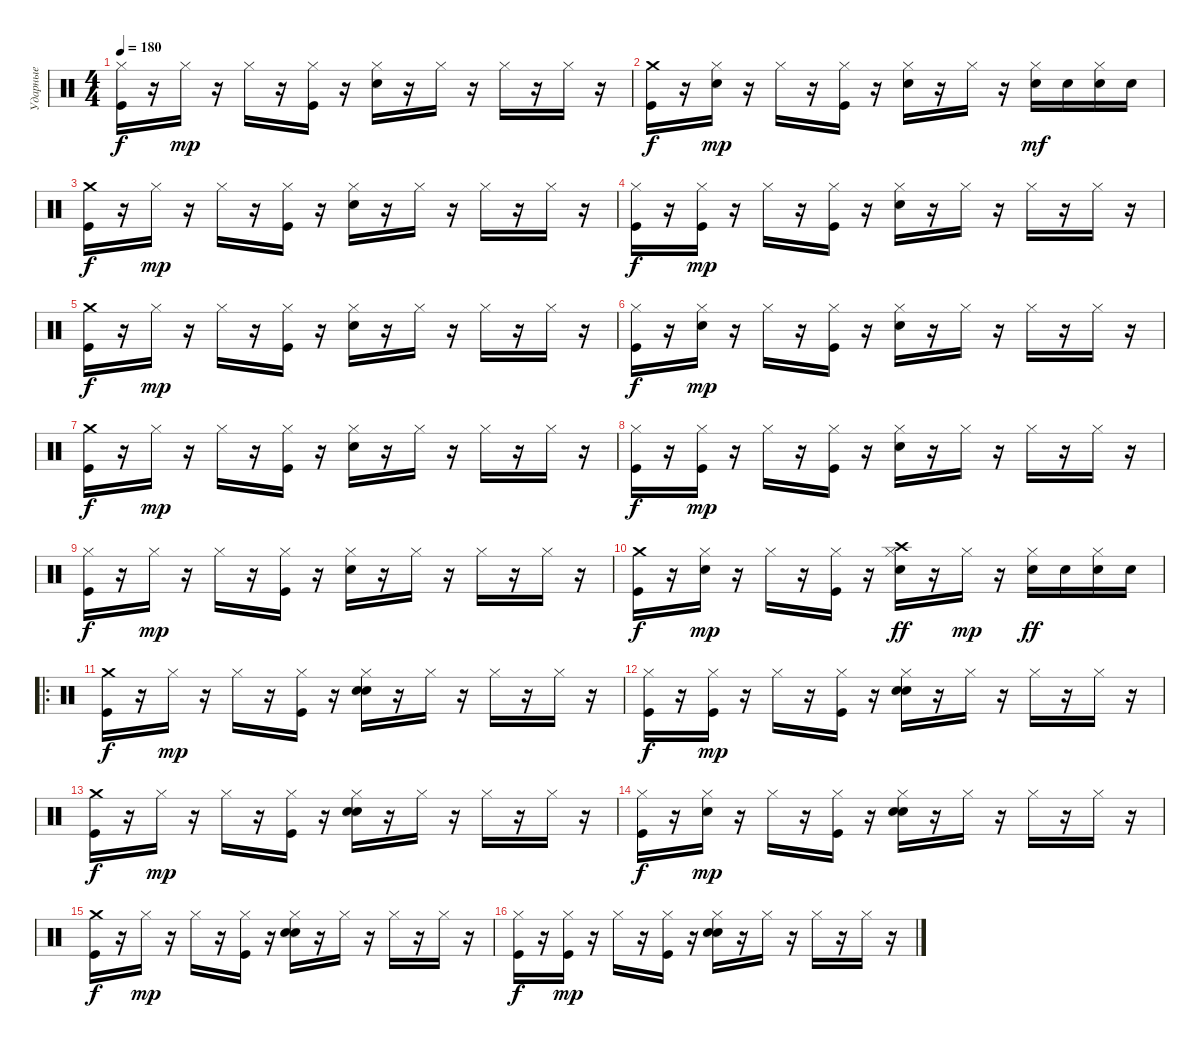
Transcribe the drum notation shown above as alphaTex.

\track ("Ударные" "Ударные") {instrument percussion}
\staff {score}
\articulation defaults
\ts (4 4)
\tempo 180
\clef neutral
\ks c
("Hi-Hat (closed)" "Kick (hit)").16{dy f balance 0} r.16 "Hi-Hat (closed)".16{dy mp} r.16 "Hi-Hat (closed)".16 r.16 ("Hi-Hat (closed)" "Kick (hit)").16 r.16 ("Hi-Hat (closed)" "Electric Snare (hit)").16 r.16 "Hi-Hat (closed)".16 r.16 "Hi-Hat (closed)".16 r.16 "Hi-Hat (closed)".16 r.16 |
("Crash medium (hit)" "Kick (hit)").16{dy f balance 16} r.16 ("Hi-Hat (closed)" "Electric Snare (hit)").16{dy mp} r.16 "Hi-Hat (closed)".16 r.16 ("Hi-Hat (closed)" "Kick (hit)").16 r.16 ("Hi-Hat (closed)" "Electric Snare (hit)").16 r.16 "Hi-Hat (closed)".16 r.16 ("Hi-Hat (closed)" "Electric Snare (hit)").16{dy mf} "Electric Snare (hit)".16 ("Hi-Hat (closed)" "Electric Snare (hit)").16 "Electric Snare (hit)".16 |
("Crash medium (hit)" "Kick (hit)").16{dy f volume 11 balance 0} r.16 "Hi-Hat (closed)".16{dy mp} r.16 "Hi-Hat (closed)".16 r.16 ("Hi-Hat (closed)" "Kick (hit)").16 r.16 ("Hi-Hat (closed)" "Electric Snare (hit)").16 r.16 "Hi-Hat (closed)".16 r.16 "Hi-Hat (closed)".16 r.16 "Hi-Hat (closed)".16 r.16 |
("Hi-Hat (closed)" "Kick (hit)").16{dy f balance 16} r.16 ("Hi-Hat (closed)" "Kick (hit)").16{dy mp} r.16 "Hi-Hat (closed)".16 r.16 ("Hi-Hat (closed)" "Kick (hit)").16 r.16 ("Hi-Hat (closed)" "Electric Snare (hit)").16 r.16 "Hi-Hat (closed)".16 r.16 "Hi-Hat (closed)".16 r.16 "Hi-Hat (closed)".16 r.16 |
("Crash medium (hit)" "Kick (hit)").16{dy f balance 0} r.16 "Hi-Hat (closed)".16{dy mp} r.16 "Hi-Hat (closed)".16 r.16 ("Hi-Hat (closed)" "Kick (hit)").16 r.16 ("Hi-Hat (closed)" "Electric Snare (hit)").16 r.16 "Hi-Hat (closed)".16 r.16 "Hi-Hat (closed)".16 r.16 "Hi-Hat (closed)".16 r.16 |
("Hi-Hat (closed)" "Kick (hit)").16{dy f balance 16} r.16 ("Hi-Hat (closed)" "Electric Snare (hit)").16{dy mp} r.16 "Hi-Hat (closed)".16 r.16 ("Hi-Hat (closed)" "Kick (hit)").16 r.16 ("Hi-Hat (closed)" "Electric Snare (hit)").16 r.16 "Hi-Hat (closed)".16 r.16 "Hi-Hat (closed)".16 r.16 "Hi-Hat (closed)".16 r.16 |
("Crash medium (hit)" "Kick (hit)").16{dy f balance 0} r.16 "Hi-Hat (closed)".16{dy mp} r.16 "Hi-Hat (closed)".16 r.16 ("Hi-Hat (closed)" "Kick (hit)").16 r.16 ("Hi-Hat (closed)" "Electric Snare (hit)").16 r.16 "Hi-Hat (closed)".16 r.16 "Hi-Hat (closed)".16 r.16 "Hi-Hat (closed)".16 r.16 |
("Hi-Hat (closed)" "Kick (hit)").16{dy f balance 16} r.16 ("Hi-Hat (closed)" "Kick (hit)").16{dy mp} r.16 "Hi-Hat (closed)".16 r.16 ("Hi-Hat (closed)" "Kick (hit)").16 r.16 ("Hi-Hat (closed)" "Electric Snare (hit)").16 r.16 "Hi-Hat (closed)".16 r.16 "Hi-Hat (closed)".16 r.16 "Hi-Hat (closed)".16 r.16 |
("Hi-Hat (closed)" "Kick (hit)").16{dy f balance 0} r.16 "Hi-Hat (closed)".16{dy mp} r.16 "Hi-Hat (closed)".16 r.16 ("Hi-Hat (closed)" "Kick (hit)").16 r.16 ("Hi-Hat (closed)" "Electric Snare (hit)").16 r.16 "Hi-Hat (closed)".16 r.16 "Hi-Hat (closed)".16 r.16 "Hi-Hat (closed)".16 r.16 |
("Crash medium (hit)" "Kick (hit)").16{dy f volume 16 balance 8} r.16 ("Hi-Hat (closed)" "Electric Snare (hit)").16{dy mp} r.16 "Hi-Hat (closed)".16 r.16 ("Hi-Hat (closed)" "Kick (hit)").16 r.16 ("Hi-Hat (closed)" "Crash high (hit)" "Electric Snare (hit)").16{dy ff} r.16 "Hi-Hat (closed)".16{dy mp} r.16 ("Hi-Hat (closed)" "Electric Snare (hit)").16{dy ff} "Electric Snare (hit)".16 ("Hi-Hat (closed)" "Electric Snare (hit)").16 "Electric Snare (hit)".16 |
\ro
("Crash medium (hit)" "Kick (hit)").16{dy f} r.16 "Hi-Hat (closed)".16{dy mp} r.16 "Hi-Hat (closed)".16 r.16 ("Hi-Hat (closed)" "Kick (hit)").16 r.16 ("Hi-Hat (closed)" "Electric Snare (hit)" "Hand Clap (hit)").16 r.16 "Hi-Hat (closed)".16 r.16 "Hi-Hat (closed)".16 r.16 "Hi-Hat (closed)".16 r.16 |
("Hi-Hat (closed)" "Kick (hit)").16{dy f} r.16 ("Hi-Hat (closed)" "Kick (hit)").16{dy mp} r.16 "Hi-Hat (closed)".16 r.16 ("Hi-Hat (closed)" "Kick (hit)").16 r.16 ("Hi-Hat (closed)" "Electric Snare (hit)" "Hand Clap (hit)").16 r.16 "Hi-Hat (closed)".16 r.16 "Hi-Hat (closed)".16 r.16 "Hi-Hat (closed)".16 r.16 |
("Crash medium (hit)" "Kick (hit)").16{dy f} r.16 "Hi-Hat (closed)".16{dy mp} r.16 "Hi-Hat (closed)".16 r.16 ("Hi-Hat (closed)" "Kick (hit)").16 r.16 ("Hi-Hat (closed)" "Electric Snare (hit)" "Hand Clap (hit)").16 r.16 "Hi-Hat (closed)".16 r.16 "Hi-Hat (closed)".16 r.16 "Hi-Hat (closed)".16 r.16 |
("Hi-Hat (closed)" "Kick (hit)").16{dy f} r.16 ("Hi-Hat (closed)" "Electric Snare (hit)").16{dy mp} r.16 "Hi-Hat (closed)".16 r.16 ("Hi-Hat (closed)" "Kick (hit)").16 r.16 ("Hi-Hat (closed)" "Electric Snare (hit)" "Hand Clap (hit)").16 r.16 "Hi-Hat (closed)".16 r.16 "Hi-Hat (closed)".16 r.16 "Hi-Hat (closed)".16 r.16 |
("Crash medium (hit)" "Kick (hit)").16{dy f} r.16 "Hi-Hat (closed)".16{dy mp} r.16 "Hi-Hat (closed)".16 r.16 ("Hi-Hat (closed)" "Kick (hit)").16 r.16 ("Hi-Hat (closed)" "Electric Snare (hit)" "Hand Clap (hit)").16 r.16 "Hi-Hat (closed)".16 r.16 "Hi-Hat (closed)".16 r.16 "Hi-Hat (closed)".16 r.16 |
("Hi-Hat (closed)" "Kick (hit)").16{dy f} r.16 ("Hi-Hat (closed)" "Kick (hit)").16{dy mp} r.16 "Hi-Hat (closed)".16 r.16 ("Hi-Hat (closed)" "Kick (hit)").16 r.16 ("Hi-Hat (closed)" "Electric Snare (hit)" "Hand Clap (hit)").16 r.16 "Hi-Hat (closed)".16 r.16 "Hi-Hat (closed)".16 r.16 "Hi-Hat (closed)".16 r.16
